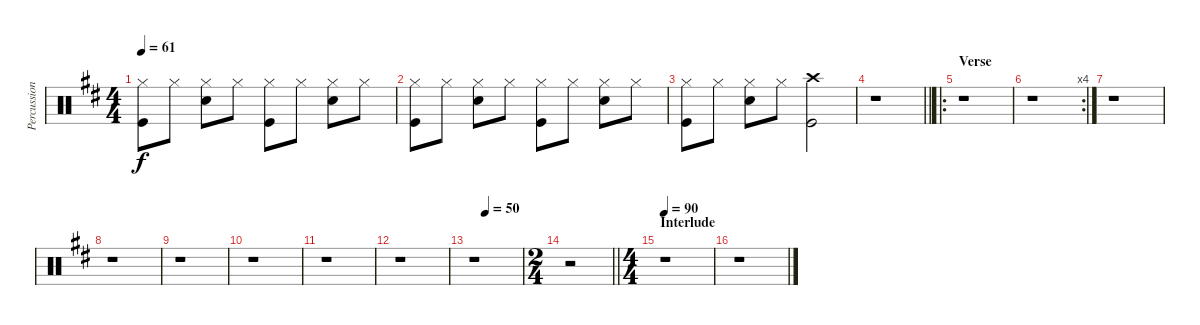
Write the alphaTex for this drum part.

\track ("Percussion" "Percussion") {instrument percussion}
\staff {score}
\articulation defaults
\ts (4 4)
\tempo 61
\clef neutral
\ks d
("Hi-Hat (closed)" "Kick (hit)").8{dy f} "Hi-Hat (closed)".8 ("Hi-Hat (closed)" "Snare (hit) 2").8 "Hi-Hat (closed)".8 ("Hi-Hat (closed)" "Kick (hit)").8 "Hi-Hat (closed)".8 ("Hi-Hat (closed)" "Snare (hit) 2").8 "Hi-Hat (closed)".8 |
("Hi-Hat (closed)" "Kick (hit)").8 "Hi-Hat (closed)".8 ("Hi-Hat (closed)" "Snare (hit) 2").8 "Hi-Hat (closed)".8 ("Hi-Hat (closed)" "Kick (hit)").8 "Hi-Hat (closed)".8 ("Hi-Hat (closed)" "Snare (hit) 2").8 "Hi-Hat (closed)".8 |
("Hi-Hat (closed)" "Kick (hit)").8 "Hi-Hat (closed)".8 ("Hi-Hat (closed)" "Snare (hit) 2").8 "Hi-Hat (closed)".8 ("Crash high (hit)" "Kick (hit)").2 |
\barLineRight lightlight
r.1 |
\ro
\section ("" "Verse")
r.1 |
\rc 4
r.1 |
r.1 |
r.1 |
r.1 |
r.1 |
r.1 |
r.1 |
\tempo (50 0.25)
r.1 |
\ts (2 4)
\barLineRight lightlight
r.2 |
\ts (4 4)
\section ("" "Interlude")
\tempo 90
r.1 |
r.1
